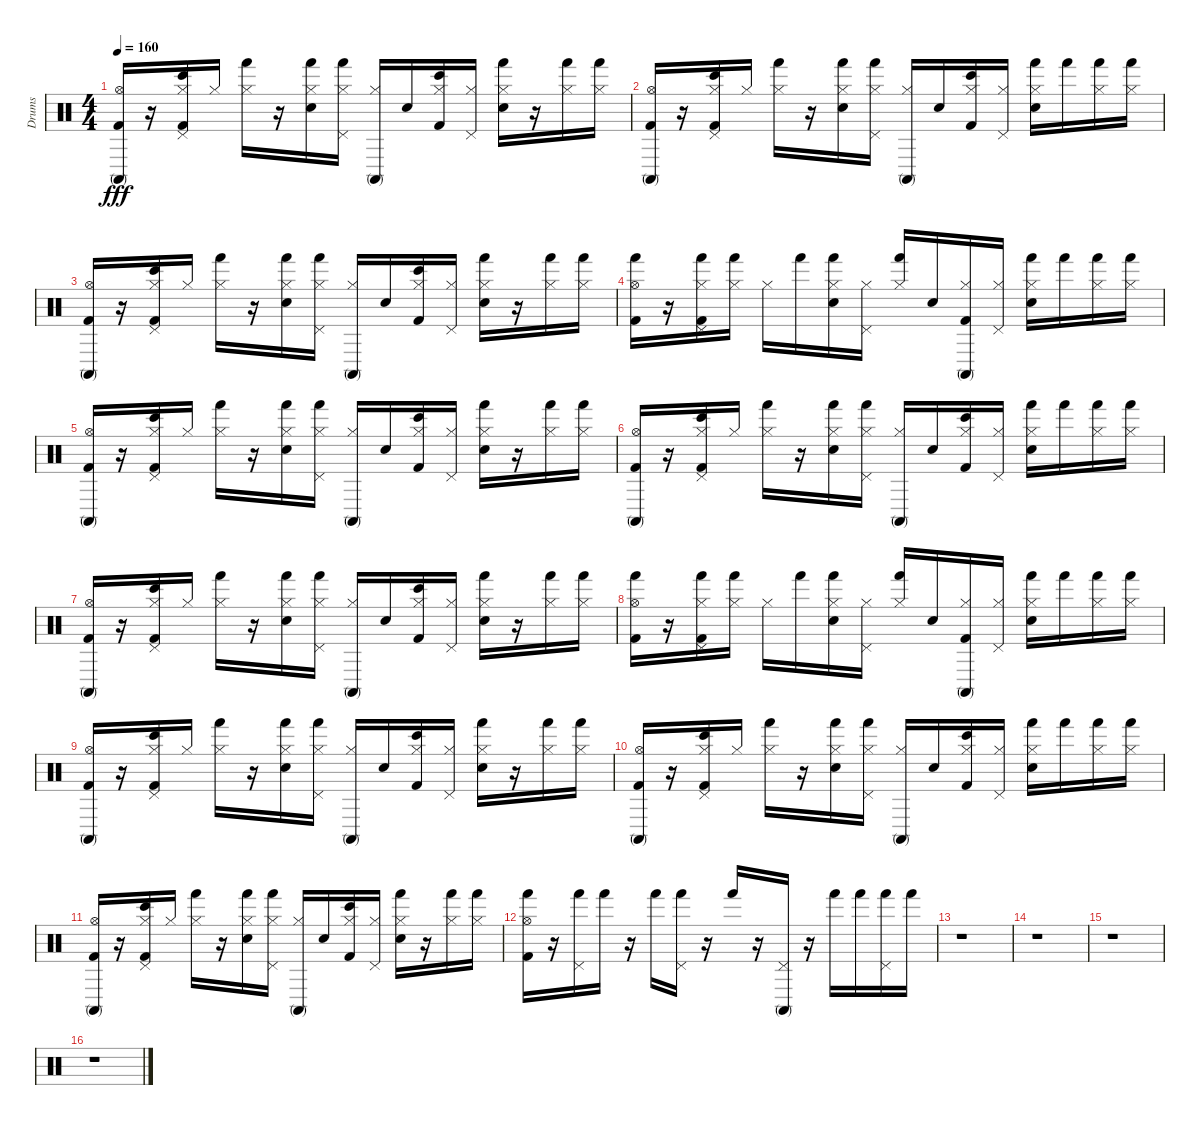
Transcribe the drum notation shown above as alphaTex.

\track ("Drums" "Drums") {instrument percussion}
\staff {score}
\articulation defaults
\ts (4 4)
\tempo 160
\clef neutral
\ks c
("Conga high (mute)" "Kick (hit) 2" "Hi-Hat (open)").16{dy fff} r.16 ("Bongo High (hit)" "Kick (hit) 2" "Hi-Hat (closed)" "Pedal Hi-Hat (hit)").16 "Hi-Hat (closed)".16 ("Hi-Hat (closed)" "Hand (hit)").16 r.16 ("Hi-Hat (closed)" "Electric Snare (hit)" "Hand (hit)").16 ("Pedal Hi-Hat (hit)" "Hand (hit)" "Hi-Hat (closed)").16 ("Hi-Hat (closed)" "Conga high (mute)").16 "Electric Snare (hit)".16 ("Kick (hit) 2" "Bongo High (hit)" "Hi-Hat (closed)").16 ("Hi-Hat (closed)" "Pedal Hi-Hat (hit)").16 ("Electric Snare (hit)" "Hi-Hat (closed)" "Hand (hit)").16 r.16 ("Hand (hit)" "Hi-Hat (closed)").16 ("Hand (hit)" "Hi-Hat (closed)").16 |
("Hi-Hat (open)" "Kick (hit) 2" "Conga high (mute)").16 r.16 ("Bongo High (hit)" "Hi-Hat (closed)" "Kick (hit) 2" "Pedal Hi-Hat (hit)").16 "Hi-Hat (closed)".16 ("Hand (hit)" "Hi-Hat (closed)").16 r.16 ("Hand (hit)" "Electric Snare (hit)" "Hi-Hat (closed)").16 ("Hand (hit)" "Pedal Hi-Hat (hit)" "Hi-Hat (closed)").16 ("Conga high (mute)" "Hi-Hat (closed)").16 "Electric Snare (hit)".16 ("Kick (hit) 2" "Hi-Hat (closed)" "Bongo High (hit)").16 ("Hi-Hat (closed)" "Pedal Hi-Hat (hit)").16 ("Hi-Hat (closed)" "Hand (hit)" "Electric Snare (hit)").16 "Hand (hit)".16 ("Hand (hit)" "Hi-Hat (closed)").16 ("Hi-Hat (closed)" "Hand (hit)").16 |
("Conga high (mute)" "Kick (hit) 2" "Hi-Hat (open)").16 r.16 ("Bongo High (hit)" "Hi-Hat (closed)" "Pedal Hi-Hat (hit)" "Kick (hit) 2").16 "Hi-Hat (closed)".16 ("Hi-Hat (closed)" "Hand (hit)").16 r.16 ("Hi-Hat (closed)" "Hand (hit)" "Electric Snare (hit)").16 ("Pedal Hi-Hat (hit)" "Hi-Hat (closed)" "Hand (hit)").16 ("Hi-Hat (closed)" "Conga high (mute)").16 "Electric Snare (hit)".16 ("Bongo High (hit)" "Kick (hit) 2" "Hi-Hat (closed)").16 ("Hi-Hat (closed)" "Pedal Hi-Hat (hit)").16 ("Hi-Hat (closed)" "Hand (hit)" "Electric Snare (hit)").16 r.16 ("Hand (hit)" "Hi-Hat (closed)").16 ("Hand (hit)" "Hi-Hat (closed)").16 |
("Kick (hit) 2" "Hi-Hat (open)" "Hand (hit)").16 r.16 ("Kick (hit) 2" "Hi-Hat (closed)" "Hand (hit)" "Pedal Hi-Hat (hit)").16 ("Hi-Hat (closed)" "Hand (hit)").16 "Hi-Hat (closed)".16 "Hand (hit)".16 ("Hi-Hat (closed)" "Hand (hit)" "Electric Snare (hit)").16 ("Hi-Hat (closed)" "Pedal Hi-Hat (hit)").16 ("Hand (hit)" "Hi-Hat (closed)").16 "Electric Snare (hit)".16 ("Kick (hit) 2" "Conga high (mute)" "Hi-Hat (closed)").16 ("Hi-Hat (closed)" "Pedal Hi-Hat (hit)").16 ("Hi-Hat (closed)" "Electric Snare (hit)" "Hand (hit)").16 "Hand (hit)".16 ("Hi-Hat (closed)" "Hand (hit)").16 ("Hand (hit)" "Hi-Hat (closed)").16 |
("Hi-Hat (open)" "Kick (hit) 2" "Conga high (mute)").16 r.16 ("Bongo High (hit)" "Pedal Hi-Hat (hit)" "Kick (hit) 2" "Hi-Hat (closed)").16 "Hi-Hat (closed)".16 ("Hi-Hat (closed)" "Hand (hit)").16 r.16 ("Hi-Hat (closed)" "Electric Snare (hit)" "Hand (hit)").16 ("Hi-Hat (closed)" "Pedal Hi-Hat (hit)" "Hand (hit)").16 ("Conga high (mute)" "Hi-Hat (closed)").16 "Electric Snare (hit)".16 ("Bongo High (hit)" "Hi-Hat (closed)" "Kick (hit) 2").16 ("Pedal Hi-Hat (hit)" "Hi-Hat (closed)").16 ("Electric Snare (hit)" "Hi-Hat (closed)" "Hand (hit)").16 r.16 ("Hand (hit)" "Hi-Hat (closed)").16 ("Hand (hit)" "Hi-Hat (closed)").16 |
("Kick (hit) 2" "Hi-Hat (open)" "Conga high (mute)").16 r.16 ("Hi-Hat (closed)" "Kick (hit) 2" "Pedal Hi-Hat (hit)" "Bongo High (hit)").16 "Hi-Hat (closed)".16 ("Hi-Hat (closed)" "Hand (hit)").16 r.16 ("Hand (hit)" "Electric Snare (hit)" "Hi-Hat (closed)").16 ("Pedal Hi-Hat (hit)" "Hand (hit)" "Hi-Hat (closed)").16 ("Conga high (mute)" "Hi-Hat (closed)").16 "Electric Snare (hit)".16 ("Kick (hit) 2" "Bongo High (hit)" "Hi-Hat (closed)").16 ("Pedal Hi-Hat (hit)" "Hi-Hat (closed)").16 ("Electric Snare (hit)" "Hi-Hat (closed)" "Hand (hit)").16 "Hand (hit)".16 ("Hand (hit)" "Hi-Hat (closed)").16 ("Hi-Hat (closed)" "Hand (hit)").16 |
("Conga high (mute)" "Hi-Hat (open)" "Kick (hit) 2").16 r.16 ("Bongo High (hit)" "Kick (hit) 2" "Hi-Hat (closed)" "Pedal Hi-Hat (hit)").16 "Hi-Hat (closed)".16 ("Hand (hit)" "Hi-Hat (closed)").16 r.16 ("Electric Snare (hit)" "Hand (hit)" "Hi-Hat (closed)").16 ("Hi-Hat (closed)" "Pedal Hi-Hat (hit)" "Hand (hit)").16 ("Conga high (mute)" "Hi-Hat (closed)").16 "Electric Snare (hit)".16 ("Kick (hit) 2" "Bongo High (hit)" "Hi-Hat (closed)").16 ("Pedal Hi-Hat (hit)" "Hi-Hat (closed)").16 ("Electric Snare (hit)" "Hand (hit)" "Hi-Hat (closed)").16 r.16 ("Hi-Hat (closed)" "Hand (hit)").16 ("Hi-Hat (closed)" "Hand (hit)").16 |
("Hand (hit)" "Kick (hit) 2" "Hi-Hat (open)").16 r.16 ("Pedal Hi-Hat (hit)" "Hand (hit)" "Hi-Hat (closed)" "Kick (hit) 2").16 ("Hand (hit)" "Hi-Hat (closed)").16 "Hi-Hat (closed)".16 "Hand (hit)".16 ("Hi-Hat (closed)" "Hand (hit)" "Electric Snare (hit)").16 ("Hi-Hat (closed)" "Pedal Hi-Hat (hit)").16 ("Hi-Hat (closed)" "Hand (hit)").16 "Electric Snare (hit)".16 ("Hi-Hat (closed)" "Kick (hit) 2" "Conga high (mute)").16 ("Hi-Hat (closed)" "Pedal Hi-Hat (hit)").16 ("Electric Snare (hit)" "Hand (hit)" "Hi-Hat (closed)").16 "Hand (hit)".16 ("Hand (hit)" "Hi-Hat (closed)").16 ("Hand (hit)" "Hi-Hat (closed)").16 |
("Kick (hit) 2" "Hi-Hat (open)" "Conga high (mute)").16 r.16 ("Bongo High (hit)" "Pedal Hi-Hat (hit)" "Hi-Hat (closed)" "Kick (hit) 2").16 "Hi-Hat (closed)".16 ("Hand (hit)" "Hi-Hat (closed)").16 r.16 ("Electric Snare (hit)" "Hand (hit)" "Hi-Hat (closed)").16 ("Pedal Hi-Hat (hit)" "Hand (hit)" "Hi-Hat (closed)").16 ("Hi-Hat (closed)" "Conga high (mute)").16 "Electric Snare (hit)".16 ("Bongo High (hit)" "Kick (hit) 2" "Hi-Hat (closed)").16 ("Pedal Hi-Hat (hit)" "Hi-Hat (closed)").16 ("Hi-Hat (closed)" "Electric Snare (hit)" "Hand (hit)").16 r.16 ("Hi-Hat (closed)" "Hand (hit)").16 ("Hi-Hat (closed)" "Hand (hit)").16 |
("Conga high (mute)" "Hi-Hat (open)" "Kick (hit) 2").16 r.16 ("Bongo High (hit)" "Pedal Hi-Hat (hit)" "Hi-Hat (closed)" "Kick (hit) 2").16 "Hi-Hat (closed)".16 ("Hand (hit)" "Hi-Hat (closed)").16 r.16 ("Electric Snare (hit)" "Hi-Hat (closed)" "Hand (hit)").16 ("Pedal Hi-Hat (hit)" "Hi-Hat (closed)" "Hand (hit)").16 ("Hi-Hat (closed)" "Conga high (mute)").16 "Electric Snare (hit)".16 ("Bongo High (hit)" "Hi-Hat (closed)" "Kick (hit) 2").16 ("Hi-Hat (closed)" "Pedal Hi-Hat (hit)").16 ("Hi-Hat (closed)" "Hand (hit)" "Electric Snare (hit)").16 "Hand (hit)".16 ("Hi-Hat (closed)" "Hand (hit)").16 ("Hi-Hat (closed)" "Hand (hit)").16 |
("Hi-Hat (open)" "Kick (hit) 2" "Conga high (mute)").16 r.16 ("Bongo High (hit)" "Hi-Hat (closed)" "Kick (hit) 2" "Pedal Hi-Hat (hit)").16 "Hi-Hat (closed)".16 ("Hi-Hat (closed)" "Hand (hit)").16 r.16 ("Electric Snare (hit)" "Hand (hit)" "Hi-Hat (closed)").16 ("Pedal Hi-Hat (hit)" "Hand (hit)" "Hi-Hat (closed)").16 ("Conga high (mute)" "Hi-Hat (closed)").16 "Electric Snare (hit)".16 ("Hi-Hat (closed)" "Kick (hit) 2" "Bongo High (hit)").16 ("Hi-Hat (closed)" "Pedal Hi-Hat (hit)").16 ("Hi-Hat (closed)" "Electric Snare (hit)" "Hand (hit)").16 r.16 ("Hand (hit)" "Hi-Hat (closed)").16 ("Hand (hit)" "Hi-Hat (closed)").16 |
("Hand (hit)" "Hi-Hat (open)" "Kick (hit) 2").16 r.16 ("Pedal Hi-Hat (hit)" "Hand (hit)").16 "Hand (hit)".16 r.16 "Hand (hit)".16 ("Pedal Hi-Hat (hit)" "Hand (hit)").16 r.16 "Hand (hit)".16 r.16 ("Pedal Hi-Hat (hit)" "Conga high (mute)").16 r.16 "Hand (hit)".16 "Hand (hit)".16 ("Hand (hit)" "Pedal Hi-Hat (hit)").16 "Hand (hit)".16 |
r.1 |
r.1 |
r.1 |
r.1
